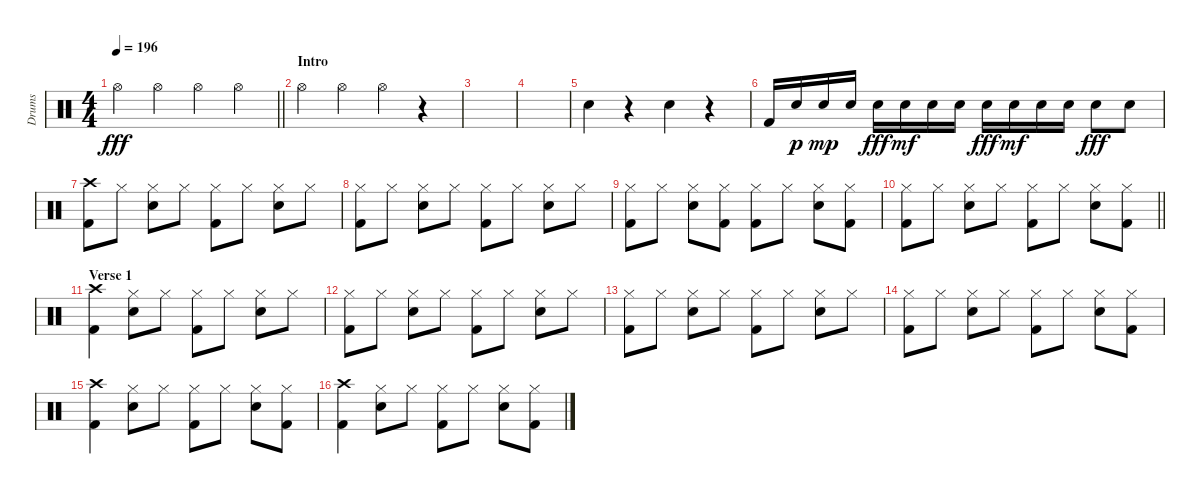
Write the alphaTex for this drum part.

\track ("Drums" "Drums") {instrument percussion}
\staff {score}
\articulation defaults
\ts (4 4)
\tempo 196
\clef neutral
\barLineRight lightlight
\ks c "Hi-Hat (open)".4{dy fff} "Hi-Hat (open)".4 "Hi-Hat (open)".4 "Hi-Hat (open)".4
|
\section ("" "Intro")
"Hi-Hat (open)".4 "Hi-Hat (open)".4 "Hi-Hat (open)".4 r.4 |
|
|
"Snare (hit) 2".4 r.4 "Snare (hit) 2".4 r.4 |
"Kick (hit) 2".16 "Snare (hit) 2".16{dy p} "Snare (hit) 2".16{dy mp} "Snare (hit) 2".16 "Snare (hit) 2".16{dy fff} "Snare (hit) 2".16{dy mf} "Snare (hit) 2".16 "Snare (hit) 2".16 "Snare (hit) 2".16{dy fff} "Snare (hit) 2".16{dy mf} "Snare (hit) 2".16 "Snare (hit) 2".16 "Snare (hit) 2".8{dy fff} "Snare (hit) 2".8 |
("Crash high (hit)" "Kick (hit) 2").8 "Hi-Hat (closed)".8 ("Hi-Hat (closed)" "Snare (hit) 2").8 "Hi-Hat (closed)".8 ("Hi-Hat (closed)" "Kick (hit) 2").8 "Hi-Hat (closed)".8 ("Hi-Hat (closed)" "Snare (hit) 2").8 "Hi-Hat (closed)".8 |
("Hi-Hat (closed)" "Kick (hit) 2").8 "Hi-Hat (closed)".8 ("Hi-Hat (closed)" "Snare (hit) 2").8 "Hi-Hat (closed)".8 ("Hi-Hat (closed)" "Kick (hit) 2").8 "Hi-Hat (closed)".8 ("Hi-Hat (closed)" "Snare (hit) 2").8 "Hi-Hat (closed)".8 |
("Hi-Hat (closed)" "Kick (hit) 2").8 "Hi-Hat (closed)".8 ("Hi-Hat (closed)" "Snare (hit) 2").8 ("Hi-Hat (closed)" "Kick (hit) 2").8 ("Hi-Hat (closed)" "Kick (hit) 2").8 "Hi-Hat (closed)".8 ("Hi-Hat (closed)" "Snare (hit) 2").8 ("Hi-Hat (closed)" "Kick (hit) 2").8 |
\barLineRight lightlight
("Hi-Hat (closed)" "Kick (hit) 2").8 "Hi-Hat (closed)".8 ("Hi-Hat (closed)" "Snare (hit) 2").8 "Hi-Hat (closed)".8 ("Hi-Hat (closed)" "Kick (hit) 2").8 "Hi-Hat (closed)".8 ("Hi-Hat (closed)" "Snare (hit) 2").8 ("Hi-Hat (closed)" "Kick (hit) 2").8 |
\section ("" "Verse 1")
("Crash high (hit)" "Kick (hit) 2").4 ("Hi-Hat (closed)" "Snare (hit) 2").8 "Hi-Hat (closed)".8 ("Hi-Hat (closed)" "Kick (hit) 2").8 "Hi-Hat (closed)".8 ("Hi-Hat (closed)" "Snare (hit) 2").8 "Hi-Hat (closed)".8 |
("Hi-Hat (closed)" "Kick (hit) 2").8 "Hi-Hat (closed)".8 ("Hi-Hat (closed)" "Snare (hit) 2").8 "Hi-Hat (closed)".8 ("Hi-Hat (closed)" "Kick (hit) 2").8 "Hi-Hat (closed)".8 ("Hi-Hat (closed)" "Snare (hit) 2").8 "Hi-Hat (closed)".8 |
("Hi-Hat (closed)" "Kick (hit) 2").8 "Hi-Hat (closed)".8 ("Hi-Hat (closed)" "Snare (hit) 2").8 "Hi-Hat (closed)".8 ("Hi-Hat (closed)" "Kick (hit) 2").8 "Hi-Hat (closed)".8 ("Hi-Hat (closed)" "Snare (hit) 2").8 "Hi-Hat (closed)".8 |
("Hi-Hat (closed)" "Kick (hit) 2").8 "Hi-Hat (closed)".8 ("Hi-Hat (closed)" "Snare (hit) 2").8 "Hi-Hat (closed)".8 ("Hi-Hat (closed)" "Kick (hit) 2").8 "Hi-Hat (closed)".8 ("Hi-Hat (closed)" "Snare (hit) 2").8 ("Hi-Hat (closed)" "Kick (hit) 2").8 |
("Crash high (hit)" "Kick (hit) 2").4 ("Hi-Hat (closed)" "Snare (hit) 2").8 "Hi-Hat (closed)".8 ("Hi-Hat (closed)" "Kick (hit) 2").8 "Hi-Hat (closed)".8 ("Hi-Hat (closed)" "Snare (hit) 2").8 ("Hi-Hat (closed)" "Kick (hit) 2").8 |
("Crash high (hit)" "Kick (hit) 2").4 ("Hi-Hat (closed)" "Snare (hit) 2").8 "Hi-Hat (closed)".8 ("Hi-Hat (closed)" "Kick (hit) 2").8 "Hi-Hat (closed)".8 ("Hi-Hat (closed)" "Snare (hit) 2").8 ("Hi-Hat (closed)" "Kick (hit) 2").8
